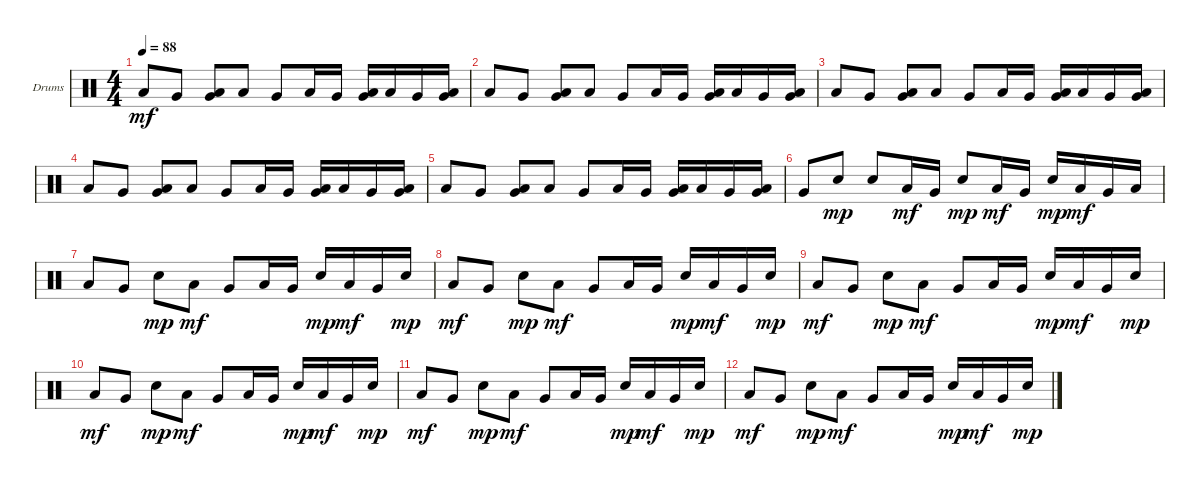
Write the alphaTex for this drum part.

\defaultSystemsLayout 4
\bracketExtendMode groupsimilarinstruments
\firstSystemTrackNameOrientation horizontal
\otherSystemsTrackNameOrientation horizontal
\track ("Helders" "Drums") {instrument percussion}
\staff {score}
\articulation defaults
\ts (4 4)
\tempo 88
\clef neutral
\ks c "Low Tom (hit)".8{dy mf} "Very Low Tom (hit)".8
("Low Tom (hit)" "Very Low Tom (hit)").8 "Low Tom (hit)".8 "Very Low Tom (hit)".8 "Low Tom (hit)".16 "Very Low Tom (hit)".16 ("Very Low Tom (hit)" "Low Tom (hit)").16 "Low Tom (hit)".16 "Very Low Tom (hit)".16 ("Low Tom (hit)" "Very Low Tom (hit)").16 |
"Low Tom (hit)".8 "Very Low Tom (hit)".8 ("Low Tom (hit)" "Very Low Tom (hit)").8 "Low Tom (hit)".8 "Very Low Tom (hit)".8 "Low Tom (hit)".16 "Very Low Tom (hit)".16 ("Low Tom (hit)" "Very Low Tom (hit)").16 "Low Tom (hit)".16 "Very Low Tom (hit)".16 ("Low Tom (hit)" "Very Low Tom (hit)").16 |
"Low Tom (hit)".8 "Very Low Tom (hit)".8 ("Low Tom (hit)" "Very Low Tom (hit)").8 "Low Tom (hit)".8 "Very Low Tom (hit)".8 "Low Tom (hit)".16 "Very Low Tom (hit)".16 ("Very Low Tom (hit)" "Low Tom (hit)").16 "Low Tom (hit)".16 "Very Low Tom (hit)".16 ("Low Tom (hit)" "Very Low Tom (hit)").16 |
"Low Tom (hit)".8 "Very Low Tom (hit)".8 ("Low Tom (hit)" "Very Low Tom (hit)").8 "Low Tom (hit)".8 "Very Low Tom (hit)".8 "Low Tom (hit)".16 "Very Low Tom (hit)".16 ("Low Tom (hit)" "Very Low Tom (hit)").16 "Low Tom (hit)".16 "Very Low Tom (hit)".16 ("Low Tom (hit)" "Very Low Tom (hit)").16 |
"Low Tom (hit)".8 "Very Low Tom (hit)".8 ("Low Tom (hit)" "Very Low Tom (hit)").8 "Low Tom (hit)".8 "Very Low Tom (hit)".8 "Low Tom (hit)".16 "Very Low Tom (hit)".16 ("Very Low Tom (hit)" "Low Tom (hit)").16 "Low Tom (hit)".16 "Very Low Tom (hit)".16 ("Low Tom (hit)" "Very Low Tom (hit)").16 |
"Very Low Tom (hit)".8 "Snare (hit) 2".8{dy mp} "Snare (hit) 2".8 "Low Tom (hit)".16{dy mf} "Very Low Tom (hit)".16 "Snare (hit) 2".8{dy mp} "Low Tom (hit)".16{dy mf} "Very Low Tom (hit)".16 "Snare (hit) 2".16{dy mp} "Low Tom (hit)".16{dy mf} "Very Low Tom (hit)".16 "Low Tom (hit)".16 |
"Low Tom (hit)".8 "Very Low Tom (hit)".8 "Snare (hit) 2".8{dy mp} "Low Tom (hit)".8{dy mf} "Very Low Tom (hit)".8 "Low Tom (hit)".16 "Very Low Tom (hit)".16 "Snare (hit) 2".16{dy mp} "Low Tom (hit)".16{dy mf} "Very Low Tom (hit)".16 "Snare (hit) 2".16{dy mp} |
"Low Tom (hit)".8{dy mf} "Very Low Tom (hit)".8 "Snare (hit) 2".8{dy mp} "Low Tom (hit)".8{dy mf} "Very Low Tom (hit)".8 "Low Tom (hit)".16 "Very Low Tom (hit)".16 "Snare (hit) 2".16{dy mp} "Low Tom (hit)".16{dy mf} "Very Low Tom (hit)".16 "Snare (hit) 2".16{dy mp} |
"Low Tom (hit)".8{dy mf} "Very Low Tom (hit)".8 "Snare (hit) 2".8{dy mp} "Low Tom (hit)".8{dy mf} "Very Low Tom (hit)".8 "Low Tom (hit)".16 "Very Low Tom (hit)".16 "Snare (hit) 2".16{dy mp} "Low Tom (hit)".16{dy mf} "Very Low Tom (hit)".16 "Snare (hit) 2".16{dy mp} |
"Low Tom (hit)".8{dy mf} "Very Low Tom (hit)".8 "Snare (hit) 2".8{dy mp} "Low Tom (hit)".8{dy mf} "Very Low Tom (hit)".8 "Low Tom (hit)".16 "Very Low Tom (hit)".16 "Snare (hit) 2".16{dy mp} "Low Tom (hit)".16{dy mf} "Very Low Tom (hit)".16 "Snare (hit) 2".16{dy mp} |
"Low Tom (hit)".8{dy mf} "Very Low Tom (hit)".8 "Snare (hit) 2".8{dy mp} "Low Tom (hit)".8{dy mf} "Very Low Tom (hit)".8 "Low Tom (hit)".16 "Very Low Tom (hit)".16 "Snare (hit) 2".16{dy mp} "Low Tom (hit)".16{dy mf} "Very Low Tom (hit)".16 "Snare (hit) 2".16{dy mp} |
"Low Tom (hit)".8{dy mf} "Very Low Tom (hit)".8 "Snare (hit) 2".8{dy mp} "Low Tom (hit)".8{dy mf} "Very Low Tom (hit)".8 "Low Tom (hit)".16 "Very Low Tom (hit)".16 "Snare (hit) 2".16{dy mp} "Low Tom (hit)".16{dy mf} "Very Low Tom (hit)".16 "Snare (hit) 2".16{dy mp}
